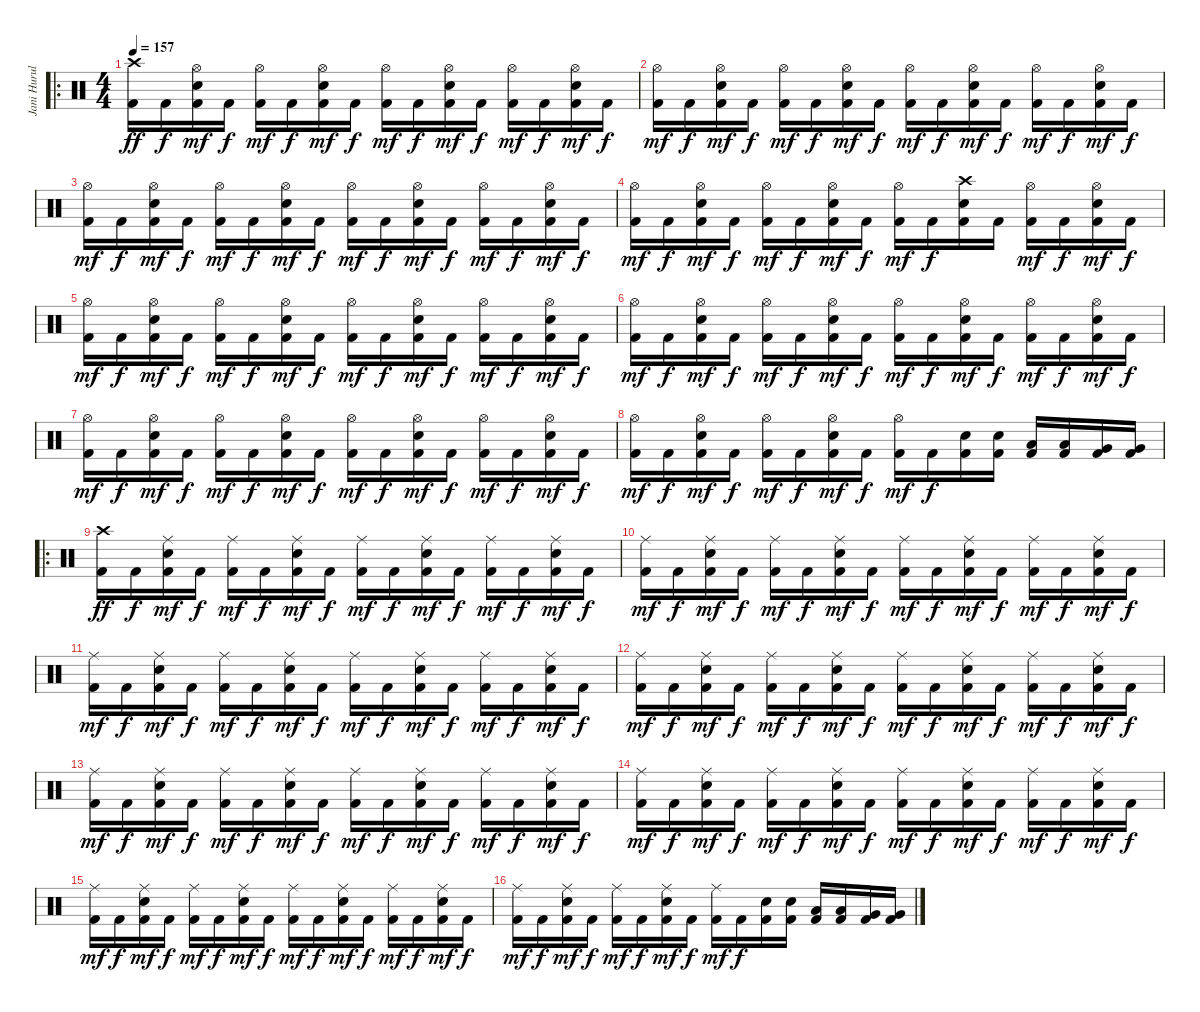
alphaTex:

\track ("Jani Hurula" "Jani Hurul") {instrument percussion}
\staff {score}
\articulation defaults
\ro
\ts (4 4)
\tempo 157
\clef neutral
\ks c
("Crash high (hit)" "Kick (hit) 2").16{dy ff} "Kick (hit) 2".16{dy f} ("Hi-Hat (open)" "Snare (hit) 2" "Kick (hit) 2").16{dy mf} "Kick (hit) 2".16{dy f} ("Hi-Hat (open)" "Kick (hit) 2").16{dy mf} "Kick (hit) 2".16{dy f} ("Hi-Hat (open)" "Snare (hit) 2" "Kick (hit) 2").16{dy mf} "Kick (hit) 2".16{dy f} ("Hi-Hat (open)" "Kick (hit) 2").16{dy mf} "Kick (hit) 2".16{dy f} ("Hi-Hat (open)" "Snare (hit) 2" "Kick (hit) 2").16{dy mf} "Kick (hit) 2".16{dy f} ("Hi-Hat (open)" "Kick (hit) 2").16{dy mf} "Kick (hit) 2".16{dy f} ("Hi-Hat (open)" "Snare (hit) 2" "Kick (hit) 2").16{dy mf} "Kick (hit) 2".16{dy f} |
("Hi-Hat (open)" "Kick (hit) 2").16{dy mf} "Kick (hit) 2".16{dy f} ("Hi-Hat (open)" "Snare (hit) 2" "Kick (hit) 2").16{dy mf} "Kick (hit) 2".16{dy f} ("Hi-Hat (open)" "Kick (hit) 2").16{dy mf} "Kick (hit) 2".16{dy f} ("Hi-Hat (open)" "Snare (hit) 2" "Kick (hit) 2").16{dy mf} "Kick (hit) 2".16{dy f} ("Hi-Hat (open)" "Kick (hit) 2").16{dy mf} "Kick (hit) 2".16{dy f} ("Hi-Hat (open)" "Snare (hit) 2" "Kick (hit) 2").16{dy mf} "Kick (hit) 2".16{dy f} ("Hi-Hat (open)" "Kick (hit) 2").16{dy mf} "Kick (hit) 2".16{dy f} ("Hi-Hat (open)" "Snare (hit) 2" "Kick (hit) 2").16{dy mf} "Kick (hit) 2".16{dy f} |
("Hi-Hat (open)" "Kick (hit) 2").16{dy mf} "Kick (hit) 2".16{dy f} ("Hi-Hat (open)" "Snare (hit) 2" "Kick (hit) 2").16{dy mf} "Kick (hit) 2".16{dy f} ("Hi-Hat (open)" "Kick (hit) 2").16{dy mf} "Kick (hit) 2".16{dy f} ("Hi-Hat (open)" "Snare (hit) 2" "Kick (hit) 2").16{dy mf} "Kick (hit) 2".16{dy f} ("Hi-Hat (open)" "Kick (hit) 2").16{dy mf} "Kick (hit) 2".16{dy f} ("Hi-Hat (open)" "Snare (hit) 2" "Kick (hit) 2").16{dy mf} "Kick (hit) 2".16{dy f} ("Hi-Hat (open)" "Kick (hit) 2").16{dy mf} "Kick (hit) 2".16{dy f} ("Hi-Hat (open)" "Snare (hit) 2" "Kick (hit) 2").16{dy mf} "Kick (hit) 2".16{dy f} |
("Hi-Hat (open)" "Kick (hit) 2").16{dy mf} "Kick (hit) 2".16{dy f} ("Hi-Hat (open)" "Snare (hit) 2" "Kick (hit) 2").16{dy mf} "Kick (hit) 2".16{dy f} ("Hi-Hat (open)" "Kick (hit) 2").16{dy mf} "Kick (hit) 2".16{dy f} ("Hi-Hat (open)" "Snare (hit) 2" "Kick (hit) 2").16{dy mf} "Kick (hit) 2".16{dy f} ("Hi-Hat (open)" "Kick (hit) 2").16{dy mf} "Kick (hit) 2".16{dy f} ("Crash high (hit)" "Snare (hit) 2" "Kick (hit) 2").16 "Kick (hit) 2".16 ("Hi-Hat (open)" "Kick (hit) 2").16{dy mf} "Kick (hit) 2".16{dy f} ("Hi-Hat (open)" "Snare (hit) 2" "Kick (hit) 2").16{dy mf} "Kick (hit) 2".16{dy f} |
("Hi-Hat (open)" "Kick (hit) 2").16{dy mf} "Kick (hit) 2".16{dy f} ("Hi-Hat (open)" "Snare (hit) 2" "Kick (hit) 2").16{dy mf} "Kick (hit) 2".16{dy f} ("Hi-Hat (open)" "Kick (hit) 2").16{dy mf} "Kick (hit) 2".16{dy f} ("Hi-Hat (open)" "Snare (hit) 2" "Kick (hit) 2").16{dy mf} "Kick (hit) 2".16{dy f} ("Hi-Hat (open)" "Kick (hit) 2").16{dy mf} "Kick (hit) 2".16{dy f} ("Hi-Hat (open)" "Snare (hit) 2" "Kick (hit) 2").16{dy mf} "Kick (hit) 2".16{dy f} ("Hi-Hat (open)" "Kick (hit) 2").16{dy mf} "Kick (hit) 2".16{dy f} ("Hi-Hat (open)" "Snare (hit) 2" "Kick (hit) 2").16{dy mf} "Kick (hit) 2".16{dy f} |
("Hi-Hat (open)" "Kick (hit) 2").16{dy mf} "Kick (hit) 2".16{dy f} ("Hi-Hat (open)" "Snare (hit) 2" "Kick (hit) 2").16{dy mf} "Kick (hit) 2".16{dy f} ("Hi-Hat (open)" "Kick (hit) 2").16{dy mf} "Kick (hit) 2".16{dy f} ("Hi-Hat (open)" "Snare (hit) 2" "Kick (hit) 2").16{dy mf} "Kick (hit) 2".16{dy f} ("Hi-Hat (open)" "Kick (hit) 2").16{dy mf} "Kick (hit) 2".16{dy f} ("Hi-Hat (open)" "Snare (hit) 2" "Kick (hit) 2").16{dy mf} "Kick (hit) 2".16{dy f} ("Hi-Hat (open)" "Kick (hit) 2").16{dy mf} "Kick (hit) 2".16{dy f} ("Hi-Hat (open)" "Snare (hit) 2" "Kick (hit) 2").16{dy mf} "Kick (hit) 2".16{dy f} |
("Hi-Hat (open)" "Kick (hit) 2").16{dy mf} "Kick (hit) 2".16{dy f} ("Hi-Hat (open)" "Snare (hit) 2" "Kick (hit) 2").16{dy mf} "Kick (hit) 2".16{dy f} ("Hi-Hat (open)" "Kick (hit) 2").16{dy mf} "Kick (hit) 2".16{dy f} ("Hi-Hat (open)" "Snare (hit) 2" "Kick (hit) 2").16{dy mf} "Kick (hit) 2".16{dy f} ("Hi-Hat (open)" "Kick (hit) 2").16{dy mf} "Kick (hit) 2".16{dy f} ("Hi-Hat (open)" "Snare (hit) 2" "Kick (hit) 2").16{dy mf} "Kick (hit) 2".16{dy f} ("Hi-Hat (open)" "Kick (hit) 2").16{dy mf} "Kick (hit) 2".16{dy f} ("Hi-Hat (open)" "Snare (hit) 2" "Kick (hit) 2").16{dy mf} "Kick (hit) 2".16{dy f} |
("Hi-Hat (open)" "Kick (hit) 2").16{dy mf} "Kick (hit) 2".16{dy f} ("Hi-Hat (open)" "Snare (hit) 2" "Kick (hit) 2").16{dy mf} "Kick (hit) 2".16{dy f} ("Hi-Hat (open)" "Kick (hit) 2").16{dy mf} "Kick (hit) 2".16{dy f} ("Hi-Hat (open)" "Snare (hit) 2" "Kick (hit) 2").16{dy mf} "Kick (hit) 2".16{dy f} ("Hi-Hat (open)" "Kick (hit) 2").16{dy mf} "Kick (hit) 2".16{dy f} ("Snare (hit) 2" "Kick (hit) 2").16 ("Snare (hit) 2" "Kick (hit) 2").16 ("Low Tom (hit)" "Kick (hit) 2").16 ("Low Tom (hit)" "Kick (hit) 2").16 ("Very Low Tom (hit)" "Kick (hit) 2").16 ("Very Low Tom (hit)" "Kick (hit) 2").16 |
\ro
("Crash high (hit)" "Kick (hit) 2").16{dy ff} "Kick (hit) 2".16{dy f} ("Ride (middle)" "Snare (hit) 2" "Kick (hit) 2").16{dy mf} "Kick (hit) 2".16{dy f} ("Ride (middle)" "Kick (hit) 2").16{dy mf} "Kick (hit) 2".16{dy f} ("Ride (middle)" "Snare (hit) 2" "Kick (hit) 2").16{dy mf} "Kick (hit) 2".16{dy f} ("Ride (middle)" "Kick (hit) 2").16{dy mf} "Kick (hit) 2".16{dy f} ("Ride (middle)" "Snare (hit) 2" "Kick (hit) 2").16{dy mf} "Kick (hit) 2".16{dy f} ("Ride (middle)" "Kick (hit) 2").16{dy mf} "Kick (hit) 2".16{dy f} ("Ride (middle)" "Snare (hit) 2" "Kick (hit) 2").16{dy mf} "Kick (hit) 2".16{dy f} |
("Ride (middle)" "Kick (hit) 2").16{dy mf} "Kick (hit) 2".16{dy f} ("Ride (middle)" "Snare (hit) 2" "Kick (hit) 2").16{dy mf} "Kick (hit) 2".16{dy f} ("Ride (middle)" "Kick (hit) 2").16{dy mf} "Kick (hit) 2".16{dy f} ("Ride (middle)" "Snare (hit) 2" "Kick (hit) 2").16{dy mf} "Kick (hit) 2".16{dy f} ("Ride (middle)" "Kick (hit) 2").16{dy mf} "Kick (hit) 2".16{dy f} ("Ride (middle)" "Snare (hit) 2" "Kick (hit) 2").16{dy mf} "Kick (hit) 2".16{dy f} ("Ride (middle)" "Kick (hit) 2").16{dy mf} "Kick (hit) 2".16{dy f} ("Ride (middle)" "Snare (hit) 2" "Kick (hit) 2").16{dy mf} "Kick (hit) 2".16{dy f} |
("Ride (middle)" "Kick (hit) 2").16{dy mf} "Kick (hit) 2".16{dy f} ("Ride (middle)" "Snare (hit) 2" "Kick (hit) 2").16{dy mf} "Kick (hit) 2".16{dy f} ("Ride (middle)" "Kick (hit) 2").16{dy mf} "Kick (hit) 2".16{dy f} ("Ride (middle)" "Snare (hit) 2" "Kick (hit) 2").16{dy mf} "Kick (hit) 2".16{dy f} ("Ride (middle)" "Kick (hit) 2").16{dy mf} "Kick (hit) 2".16{dy f} ("Ride (middle)" "Snare (hit) 2" "Kick (hit) 2").16{dy mf} "Kick (hit) 2".16{dy f} ("Ride (middle)" "Kick (hit) 2").16{dy mf} "Kick (hit) 2".16{dy f} ("Ride (middle)" "Snare (hit) 2" "Kick (hit) 2").16{dy mf} "Kick (hit) 2".16{dy f} |
("Ride (middle)" "Kick (hit) 2").16{dy mf} "Kick (hit) 2".16{dy f} ("Ride (middle)" "Snare (hit) 2" "Kick (hit) 2").16{dy mf} "Kick (hit) 2".16{dy f} ("Ride (middle)" "Kick (hit) 2").16{dy mf} "Kick (hit) 2".16{dy f} ("Ride (middle)" "Snare (hit) 2" "Kick (hit) 2").16{dy mf} "Kick (hit) 2".16{dy f} ("Ride (middle)" "Kick (hit) 2").16{dy mf} "Kick (hit) 2".16{dy f} ("Ride (middle)" "Snare (hit) 2" "Kick (hit) 2").16{dy mf} "Kick (hit) 2".16{dy f} ("Ride (middle)" "Kick (hit) 2").16{dy mf} "Kick (hit) 2".16{dy f} ("Ride (middle)" "Snare (hit) 2" "Kick (hit) 2").16{dy mf} "Kick (hit) 2".16{dy f} |
("Ride (middle)" "Kick (hit) 2").16{dy mf} "Kick (hit) 2".16{dy f} ("Ride (middle)" "Snare (hit) 2" "Kick (hit) 2").16{dy mf} "Kick (hit) 2".16{dy f} ("Ride (middle)" "Kick (hit) 2").16{dy mf} "Kick (hit) 2".16{dy f} ("Ride (middle)" "Snare (hit) 2" "Kick (hit) 2").16{dy mf} "Kick (hit) 2".16{dy f} ("Ride (middle)" "Kick (hit) 2").16{dy mf} "Kick (hit) 2".16{dy f} ("Ride (middle)" "Snare (hit) 2" "Kick (hit) 2").16{dy mf} "Kick (hit) 2".16{dy f} ("Ride (middle)" "Kick (hit) 2").16{dy mf} "Kick (hit) 2".16{dy f} ("Ride (middle)" "Snare (hit) 2" "Kick (hit) 2").16{dy mf} "Kick (hit) 2".16{dy f} |
("Ride (middle)" "Kick (hit) 2").16{dy mf} "Kick (hit) 2".16{dy f} ("Ride (middle)" "Snare (hit) 2" "Kick (hit) 2").16{dy mf} "Kick (hit) 2".16{dy f} ("Ride (middle)" "Kick (hit) 2").16{dy mf} "Kick (hit) 2".16{dy f} ("Ride (middle)" "Snare (hit) 2" "Kick (hit) 2").16{dy mf} "Kick (hit) 2".16{dy f} ("Ride (middle)" "Kick (hit) 2").16{dy mf} "Kick (hit) 2".16{dy f} ("Ride (middle)" "Snare (hit) 2" "Kick (hit) 2").16{dy mf} "Kick (hit) 2".16{dy f} ("Ride (middle)" "Kick (hit) 2").16{dy mf} "Kick (hit) 2".16{dy f} ("Ride (middle)" "Snare (hit) 2" "Kick (hit) 2").16{dy mf} "Kick (hit) 2".16{dy f} |
("Ride (middle)" "Kick (hit) 2").16{dy mf} "Kick (hit) 2".16{dy f} ("Ride (middle)" "Snare (hit) 2" "Kick (hit) 2").16{dy mf} "Kick (hit) 2".16{dy f} ("Ride (middle)" "Kick (hit) 2").16{dy mf} "Kick (hit) 2".16{dy f} ("Ride (middle)" "Snare (hit) 2" "Kick (hit) 2").16{dy mf} "Kick (hit) 2".16{dy f} ("Ride (middle)" "Kick (hit) 2").16{dy mf} "Kick (hit) 2".16{dy f} ("Ride (middle)" "Snare (hit) 2" "Kick (hit) 2").16{dy mf} "Kick (hit) 2".16{dy f} ("Ride (middle)" "Kick (hit) 2").16{dy mf} "Kick (hit) 2".16{dy f} ("Ride (middle)" "Snare (hit) 2" "Kick (hit) 2").16{dy mf} "Kick (hit) 2".16{dy f} |
("Ride (middle)" "Kick (hit) 2").16{dy mf} "Kick (hit) 2".16{dy f} ("Ride (middle)" "Snare (hit) 2" "Kick (hit) 2").16{dy mf} "Kick (hit) 2".16{dy f} ("Ride (middle)" "Kick (hit) 2").16{dy mf} "Kick (hit) 2".16{dy f} ("Ride (middle)" "Snare (hit) 2" "Kick (hit) 2").16{dy mf} "Kick (hit) 2".16{dy f} ("Ride (middle)" "Kick (hit) 2").16{dy mf} "Kick (hit) 2".16{dy f} ("Snare (hit) 2" "Kick (hit) 2").16 ("Snare (hit) 2" "Kick (hit) 2").16 ("Low Tom (hit)" "Kick (hit) 2").16 ("Low Tom (hit)" "Kick (hit) 2").16 ("Very Low Tom (hit)" "Kick (hit) 2").16 ("Very Low Tom (hit)" "Kick (hit) 2").16
